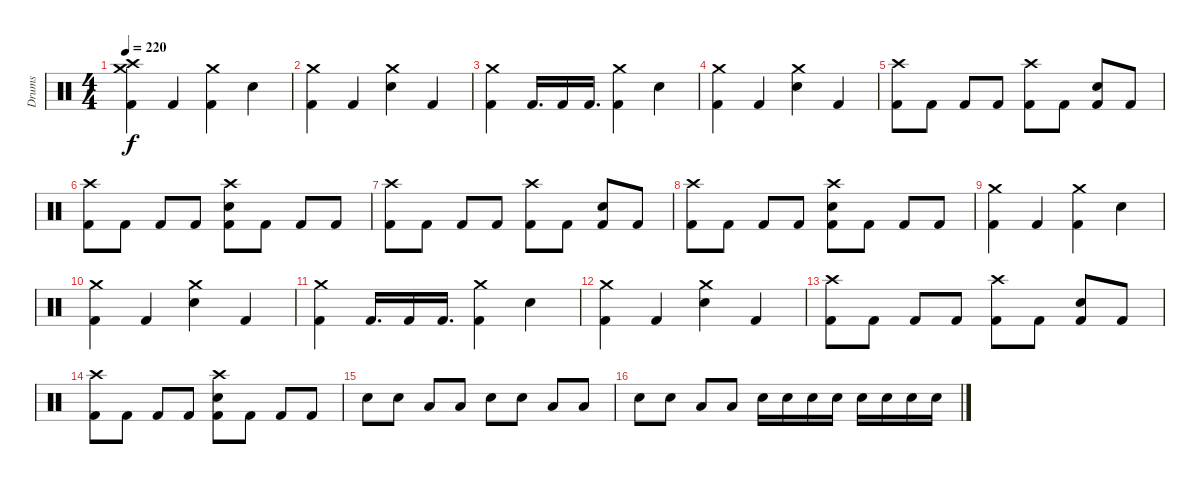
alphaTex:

\track ("Drums" "Drums") {instrument percussion}
\staff {score}
\articulation defaults
\ts (4 4)
\tempo 220
\clef neutral
\ks c
("Crash medium (hit)" "Crash high (hit)" "Kick (hit) 2").4{dy f} "Kick (hit) 2".4 ("Crash medium (hit)" "Kick (hit) 2").4 "Electric Snare (hit)".4 |
("Crash medium (hit)" "Kick (hit) 2").4 "Kick (hit) 2".4 ("Crash medium (hit)" "Electric Snare (hit)").4 "Kick (hit) 2".4 |
("Crash medium (hit)" "Kick (hit) 2").4 "Kick (hit) 2".16{d} "Kick (hit) 2".16 "Kick (hit) 2".16{d} ("Crash medium (hit)" "Kick (hit) 2").4 "Electric Snare (hit)".4 |
("Crash medium (hit)" "Kick (hit) 2").4 "Kick (hit) 2".4 ("Crash medium (hit)" "Electric Snare (hit)").4 "Kick (hit) 2".4 |
("Crash high (hit)" "Kick (hit) 2").8 "Kick (hit) 2".8 "Kick (hit) 2".8 "Kick (hit) 2".8 ("Crash high (hit)" "Kick (hit) 2").8 "Kick (hit) 2".8 ("Electric Snare (hit)" "Kick (hit) 2").8 "Kick (hit) 2".8 |
("Crash high (hit)" "Kick (hit) 2").8 "Kick (hit) 2".8 "Kick (hit) 2".8 "Kick (hit) 2".8 ("Crash high (hit)" "Electric Snare (hit)" "Kick (hit) 2").8 "Kick (hit) 2".8 "Kick (hit) 2".8 "Kick (hit) 2".8 |
("Crash high (hit)" "Kick (hit) 2").8 "Kick (hit) 2".8 "Kick (hit) 2".8 "Kick (hit) 2".8 ("Crash high (hit)" "Kick (hit) 2").8 "Kick (hit) 2".8 ("Electric Snare (hit)" "Kick (hit) 2").8 "Kick (hit) 2".8 |
("Crash high (hit)" "Kick (hit) 2").8 "Kick (hit) 2".8 "Kick (hit) 2".8 "Kick (hit) 2".8 ("Crash high (hit)" "Electric Snare (hit)" "Kick (hit) 2").8 "Kick (hit) 2".8 "Kick (hit) 2".8 "Kick (hit) 2".8 |
("Crash medium (hit)" "Kick (hit) 2").4 "Kick (hit) 2".4 ("Crash medium (hit)" "Kick (hit) 2").4 "Electric Snare (hit)".4 |
("Crash medium (hit)" "Kick (hit) 2").4 "Kick (hit) 2".4 ("Crash medium (hit)" "Electric Snare (hit)").4 "Kick (hit) 2".4 |
("Crash medium (hit)" "Kick (hit) 2").4 "Kick (hit) 2".16{d} "Kick (hit) 2".16 "Kick (hit) 2".16{d} ("Crash medium (hit)" "Kick (hit) 2").4 "Electric Snare (hit)".4 |
("Crash medium (hit)" "Kick (hit) 2").4 "Kick (hit) 2".4 ("Crash medium (hit)" "Electric Snare (hit)").4 "Kick (hit) 2".4 |
("Crash high (hit)" "Kick (hit) 2").8 "Kick (hit) 2".8 "Kick (hit) 2".8 "Kick (hit) 2".8 ("Crash high (hit)" "Kick (hit) 2").8 "Kick (hit) 2".8 ("Electric Snare (hit)" "Kick (hit) 2").8 "Kick (hit) 2".8 |
("Crash high (hit)" "Kick (hit) 2").8 "Kick (hit) 2".8 "Kick (hit) 2".8 "Kick (hit) 2".8 ("Crash high (hit)" "Electric Snare (hit)" "Kick (hit) 2").8 "Kick (hit) 2".8 "Kick (hit) 2".8 "Kick (hit) 2".8 |
"Electric Snare (hit)".8 "Electric Snare (hit)".8 "Low Tom (hit)".8 "Low Tom (hit)".8 "Electric Snare (hit)".8 "Electric Snare (hit)".8 "Low Tom (hit)".8 "Low Tom (hit)".8 |
"Electric Snare (hit)".8 "Electric Snare (hit)".8 "Low Tom (hit)".8 "Low Tom (hit)".8 "Electric Snare (hit)".16 "Electric Snare (hit)".16 "Electric Snare (hit)".16 "Electric Snare (hit)".16 "Electric Snare (hit)".16 "Electric Snare (hit)".16 "Electric Snare (hit)".16 "Electric Snare (hit)".16
